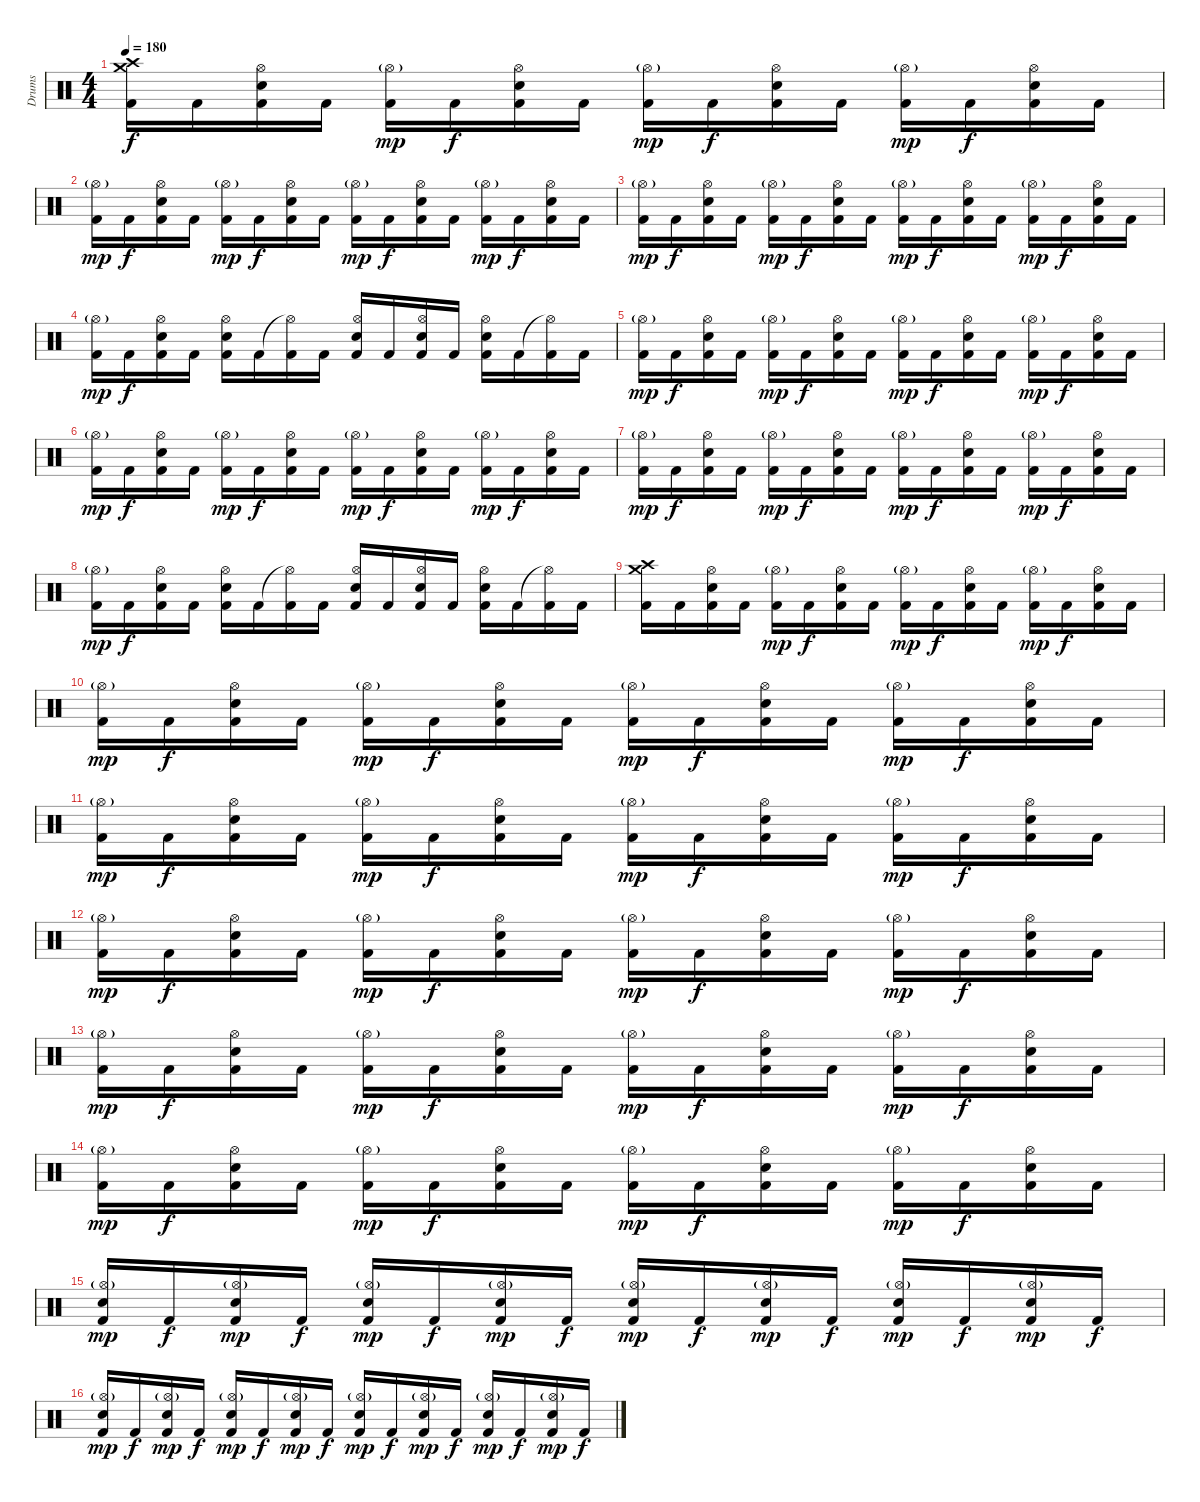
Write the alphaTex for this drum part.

\track ("Drums" "Drums") {instrument percussion}
\staff {score}
\articulation defaults
\ts (4 4)
\tempo 180
\clef neutral
\ks c
("Crash medium (hit)" "Crash high (hit)" "Kick (hit) 2").16{dy f} "Kick (hit) 2".16 ("Hi-Hat (open)" "Electric Snare (hit)" "Kick (hit) 2").16 "Kick (hit) 2".16 ("Hi-Hat (open)"{g} "Kick (hit) 2").16{dy mp} "Kick (hit) 2".16{dy f} ("Hi-Hat (open)" "Electric Snare (hit)" "Kick (hit) 2").16 "Kick (hit) 2".16 ("Hi-Hat (open)"{g} "Kick (hit) 2").16{dy mp} "Kick (hit) 2".16{dy f} ("Hi-Hat (open)" "Electric Snare (hit)" "Kick (hit) 2").16 "Kick (hit) 2".16 ("Hi-Hat (open)"{g} "Kick (hit) 2").16{dy mp} "Kick (hit) 2".16{dy f} ("Hi-Hat (open)" "Electric Snare (hit)" "Kick (hit) 2").16 "Kick (hit) 2".16 |
("Hi-Hat (open)"{g} "Kick (hit) 2").16{dy mp} "Kick (hit) 2".16{dy f} ("Hi-Hat (open)" "Electric Snare (hit)" "Kick (hit) 2").16 "Kick (hit) 2".16 ("Hi-Hat (open)"{g} "Kick (hit) 2").16{dy mp} "Kick (hit) 2".16{dy f} ("Hi-Hat (open)" "Electric Snare (hit)" "Kick (hit) 2").16 "Kick (hit) 2".16 ("Hi-Hat (open)"{g} "Kick (hit) 2").16{dy mp} "Kick (hit) 2".16{dy f} ("Hi-Hat (open)" "Electric Snare (hit)" "Kick (hit) 2").16 "Kick (hit) 2".16 ("Hi-Hat (open)"{g} "Kick (hit) 2").16{dy mp} "Kick (hit) 2".16{dy f} ("Hi-Hat (open)" "Electric Snare (hit)" "Kick (hit) 2").16 "Kick (hit) 2".16 |
("Hi-Hat (open)"{g} "Kick (hit) 2").16{dy mp} "Kick (hit) 2".16{dy f} ("Hi-Hat (open)" "Electric Snare (hit)" "Kick (hit) 2").16 "Kick (hit) 2".16 ("Hi-Hat (open)"{g} "Kick (hit) 2").16{dy mp} "Kick (hit) 2".16{dy f} ("Hi-Hat (open)" "Electric Snare (hit)" "Kick (hit) 2").16 "Kick (hit) 2".16 ("Hi-Hat (open)"{g} "Kick (hit) 2").16{dy mp} "Kick (hit) 2".16{dy f} ("Hi-Hat (open)" "Electric Snare (hit)" "Kick (hit) 2").16 "Kick (hit) 2".16 ("Hi-Hat (open)"{g} "Kick (hit) 2").16{dy mp} "Kick (hit) 2".16{dy f} ("Hi-Hat (open)" "Electric Snare (hit)" "Kick (hit) 2").16 "Kick (hit) 2".16 |
("Hi-Hat (open)"{g} "Kick (hit) 2").16{dy mp} "Kick (hit) 2".16{dy f} ("Hi-Hat (open)" "Electric Snare (hit)" "Kick (hit) 2").16 "Kick (hit) 2".16 ("Hi-Hat (open)" "Electric Snare (hit)" "Kick (hit) 2").16 "Kick (hit) 2".16 ("Hi-Hat (open)"{t} "Kick (hit) 2").16 "Kick (hit) 2".16 ("Hi-Hat (open)" "Electric Snare (hit)" "Kick (hit) 2").16 "Kick (hit) 2".16 ("Hi-Hat (open)" "Electric Snare (hit)" "Kick (hit) 2").16 "Kick (hit) 2".16 ("Hi-Hat (open)" "Electric Snare (hit)" "Kick (hit) 2").16 "Kick (hit) 2".16 ("Hi-Hat (open)"{t} "Kick (hit) 2").16 "Kick (hit) 2".16 |
("Hi-Hat (open)"{g} "Kick (hit) 2").16{dy mp} "Kick (hit) 2".16{dy f} ("Hi-Hat (open)" "Electric Snare (hit)" "Kick (hit) 2").16 "Kick (hit) 2".16 ("Hi-Hat (open)"{g} "Kick (hit) 2").16{dy mp} "Kick (hit) 2".16{dy f} ("Hi-Hat (open)" "Electric Snare (hit)" "Kick (hit) 2").16 "Kick (hit) 2".16 ("Hi-Hat (open)"{g} "Kick (hit) 2").16{dy mp} "Kick (hit) 2".16{dy f} ("Hi-Hat (open)" "Electric Snare (hit)" "Kick (hit) 2").16 "Kick (hit) 2".16 ("Hi-Hat (open)"{g} "Kick (hit) 2").16{dy mp} "Kick (hit) 2".16{dy f} ("Hi-Hat (open)" "Electric Snare (hit)" "Kick (hit) 2").16 "Kick (hit) 2".16 |
("Hi-Hat (open)"{g} "Kick (hit) 2").16{dy mp} "Kick (hit) 2".16{dy f} ("Hi-Hat (open)" "Electric Snare (hit)" "Kick (hit) 2").16 "Kick (hit) 2".16 ("Hi-Hat (open)"{g} "Kick (hit) 2").16{dy mp} "Kick (hit) 2".16{dy f} ("Hi-Hat (open)" "Electric Snare (hit)" "Kick (hit) 2").16 "Kick (hit) 2".16 ("Hi-Hat (open)"{g} "Kick (hit) 2").16{dy mp} "Kick (hit) 2".16{dy f} ("Hi-Hat (open)" "Electric Snare (hit)" "Kick (hit) 2").16 "Kick (hit) 2".16 ("Hi-Hat (open)"{g} "Kick (hit) 2").16{dy mp} "Kick (hit) 2".16{dy f} ("Hi-Hat (open)" "Electric Snare (hit)" "Kick (hit) 2").16 "Kick (hit) 2".16 |
("Hi-Hat (open)"{g} "Kick (hit) 2").16{dy mp} "Kick (hit) 2".16{dy f} ("Hi-Hat (open)" "Electric Snare (hit)" "Kick (hit) 2").16 "Kick (hit) 2".16 ("Hi-Hat (open)"{g} "Kick (hit) 2").16{dy mp} "Kick (hit) 2".16{dy f} ("Hi-Hat (open)" "Electric Snare (hit)" "Kick (hit) 2").16 "Kick (hit) 2".16 ("Hi-Hat (open)"{g} "Kick (hit) 2").16{dy mp} "Kick (hit) 2".16{dy f} ("Hi-Hat (open)" "Electric Snare (hit)" "Kick (hit) 2").16 "Kick (hit) 2".16 ("Hi-Hat (open)"{g} "Kick (hit) 2").16{dy mp} "Kick (hit) 2".16{dy f} ("Hi-Hat (open)" "Electric Snare (hit)" "Kick (hit) 2").16 "Kick (hit) 2".16 |
("Hi-Hat (open)"{g} "Kick (hit) 2").16{dy mp} "Kick (hit) 2".16{dy f} ("Hi-Hat (open)" "Electric Snare (hit)" "Kick (hit) 2").16 "Kick (hit) 2".16 ("Hi-Hat (open)" "Electric Snare (hit)" "Kick (hit) 2").16 "Kick (hit) 2".16 ("Hi-Hat (open)"{t} "Kick (hit) 2").16 "Kick (hit) 2".16 ("Hi-Hat (open)" "Electric Snare (hit)" "Kick (hit) 2").16 "Kick (hit) 2".16 ("Hi-Hat (open)" "Electric Snare (hit)" "Kick (hit) 2").16 "Kick (hit) 2".16 ("Hi-Hat (open)" "Electric Snare (hit)" "Kick (hit) 2").16 "Kick (hit) 2".16 ("Hi-Hat (open)"{t} "Kick (hit) 2").16 "Kick (hit) 2".16 |
("Crash medium (hit)" "Crash high (hit)" "Kick (hit) 2").16 "Kick (hit) 2".16 ("Hi-Hat (open)" "Electric Snare (hit)" "Kick (hit) 2").16 "Kick (hit) 2".16 ("Hi-Hat (open)"{g} "Kick (hit) 2").16{dy mp} "Kick (hit) 2".16{dy f} ("Hi-Hat (open)" "Electric Snare (hit)" "Kick (hit) 2").16 "Kick (hit) 2".16 ("Hi-Hat (open)"{g} "Kick (hit) 2").16{dy mp} "Kick (hit) 2".16{dy f} ("Hi-Hat (open)" "Electric Snare (hit)" "Kick (hit) 2").16 "Kick (hit) 2".16 ("Hi-Hat (open)"{g} "Kick (hit) 2").16{dy mp} "Kick (hit) 2".16{dy f} ("Hi-Hat (open)" "Electric Snare (hit)" "Kick (hit) 2").16 "Kick (hit) 2".16 |
("Hi-Hat (open)"{g} "Kick (hit) 2").16{dy mp} "Kick (hit) 2".16{dy f} ("Hi-Hat (open)" "Electric Snare (hit)" "Kick (hit) 2").16 "Kick (hit) 2".16 ("Hi-Hat (open)"{g} "Kick (hit) 2").16{dy mp} "Kick (hit) 2".16{dy f} ("Hi-Hat (open)" "Electric Snare (hit)" "Kick (hit) 2").16 "Kick (hit) 2".16 ("Hi-Hat (open)"{g} "Kick (hit) 2").16{dy mp} "Kick (hit) 2".16{dy f} ("Hi-Hat (open)" "Electric Snare (hit)" "Kick (hit) 2").16 "Kick (hit) 2".16 ("Hi-Hat (open)"{g} "Kick (hit) 2").16{dy mp} "Kick (hit) 2".16{dy f} ("Hi-Hat (open)" "Electric Snare (hit)" "Kick (hit) 2").16 "Kick (hit) 2".16 |
("Hi-Hat (open)"{g} "Kick (hit) 2").16{dy mp} "Kick (hit) 2".16{dy f} ("Hi-Hat (open)" "Electric Snare (hit)" "Kick (hit) 2").16 "Kick (hit) 2".16 ("Hi-Hat (open)"{g} "Kick (hit) 2").16{dy mp} "Kick (hit) 2".16{dy f} ("Hi-Hat (open)" "Electric Snare (hit)" "Kick (hit) 2").16 "Kick (hit) 2".16 ("Hi-Hat (open)"{g} "Kick (hit) 2").16{dy mp} "Kick (hit) 2".16{dy f} ("Hi-Hat (open)" "Electric Snare (hit)" "Kick (hit) 2").16 "Kick (hit) 2".16 ("Hi-Hat (open)"{g} "Kick (hit) 2").16{dy mp} "Kick (hit) 2".16{dy f} ("Hi-Hat (open)" "Electric Snare (hit)" "Kick (hit) 2").16 "Kick (hit) 2".16 |
("Hi-Hat (open)"{g} "Kick (hit) 2").16{dy mp} "Kick (hit) 2".16{dy f} ("Hi-Hat (open)" "Electric Snare (hit)" "Kick (hit) 2").16 "Kick (hit) 2".16 ("Hi-Hat (open)"{g} "Kick (hit) 2").16{dy mp} "Kick (hit) 2".16{dy f} ("Hi-Hat (open)" "Electric Snare (hit)" "Kick (hit) 2").16 "Kick (hit) 2".16 ("Hi-Hat (open)"{g} "Kick (hit) 2").16{dy mp} "Kick (hit) 2".16{dy f} ("Hi-Hat (open)" "Electric Snare (hit)" "Kick (hit) 2").16 "Kick (hit) 2".16 ("Hi-Hat (open)"{g} "Kick (hit) 2").16{dy mp} "Kick (hit) 2".16{dy f} ("Hi-Hat (open)" "Electric Snare (hit)" "Kick (hit) 2").16 "Kick (hit) 2".16 |
("Hi-Hat (open)"{g} "Kick (hit) 2").16{dy mp} "Kick (hit) 2".16{dy f} ("Hi-Hat (open)" "Electric Snare (hit)" "Kick (hit) 2").16 "Kick (hit) 2".16 ("Hi-Hat (open)"{g} "Kick (hit) 2").16{dy mp} "Kick (hit) 2".16{dy f} ("Hi-Hat (open)" "Electric Snare (hit)" "Kick (hit) 2").16 "Kick (hit) 2".16 ("Hi-Hat (open)"{g} "Kick (hit) 2").16{dy mp} "Kick (hit) 2".16{dy f} ("Hi-Hat (open)" "Electric Snare (hit)" "Kick (hit) 2").16 "Kick (hit) 2".16 ("Hi-Hat (open)"{g} "Kick (hit) 2").16{dy mp} "Kick (hit) 2".16{dy f} ("Hi-Hat (open)" "Electric Snare (hit)" "Kick (hit) 2").16 "Kick (hit) 2".16 |
("Hi-Hat (open)"{g} "Kick (hit) 2").16{dy mp} "Kick (hit) 2".16{dy f} ("Hi-Hat (open)" "Electric Snare (hit)" "Kick (hit) 2").16 "Kick (hit) 2".16 ("Hi-Hat (open)"{g} "Kick (hit) 2").16{dy mp} "Kick (hit) 2".16{dy f} ("Hi-Hat (open)" "Electric Snare (hit)" "Kick (hit) 2").16 "Kick (hit) 2".16 ("Hi-Hat (open)"{g} "Kick (hit) 2").16{dy mp} "Kick (hit) 2".16{dy f} ("Hi-Hat (open)" "Electric Snare (hit)" "Kick (hit) 2").16 "Kick (hit) 2".16 ("Hi-Hat (open)"{g} "Kick (hit) 2").16{dy mp} "Kick (hit) 2".16{dy f} ("Hi-Hat (open)" "Electric Snare (hit)" "Kick (hit) 2").16 "Kick (hit) 2".16 |
("Hi-Hat (open)"{g} "Electric Snare (hit)" "Kick (hit) 2").16{dy mp} "Kick (hit) 2".16{dy f} ("Hi-Hat (open)"{g} "Electric Snare (hit)" "Kick (hit) 2").16{dy mp} "Kick (hit) 2".16{dy f} ("Hi-Hat (open)"{g} "Electric Snare (hit)" "Kick (hit) 2").16{dy mp} "Kick (hit) 2".16{dy f} ("Hi-Hat (open)"{g} "Electric Snare (hit)" "Kick (hit) 2").16{dy mp} "Kick (hit) 2".16{dy f} ("Hi-Hat (open)"{g} "Electric Snare (hit)" "Kick (hit) 2").16{dy mp} "Kick (hit) 2".16{dy f} ("Hi-Hat (open)"{g} "Electric Snare (hit)" "Kick (hit) 2").16{dy mp} "Kick (hit) 2".16{dy f} ("Hi-Hat (open)"{g} "Electric Snare (hit)" "Kick (hit) 2").16{dy mp} "Kick (hit) 2".16{dy f} ("Hi-Hat (open)"{g} "Electric Snare (hit)" "Kick (hit) 2").16{dy mp} "Kick (hit) 2".16{dy f} |
("Hi-Hat (open)"{g} "Electric Snare (hit)" "Kick (hit) 2").16{dy mp} "Kick (hit) 2".16{dy f} ("Hi-Hat (open)"{g} "Electric Snare (hit)" "Kick (hit) 2").16{dy mp} "Kick (hit) 2".16{dy f} ("Hi-Hat (open)"{g} "Electric Snare (hit)" "Kick (hit) 2").16{dy mp} "Kick (hit) 2".16{dy f} ("Hi-Hat (open)"{g} "Electric Snare (hit)" "Kick (hit) 2").16{dy mp} "Kick (hit) 2".16{dy f} ("Hi-Hat (open)"{g} "Electric Snare (hit)" "Kick (hit) 2").16{dy mp} "Kick (hit) 2".16{dy f} ("Hi-Hat (open)"{g} "Electric Snare (hit)" "Kick (hit) 2").16{dy mp} "Kick (hit) 2".16{dy f} ("Hi-Hat (open)"{g} "Electric Snare (hit)" "Kick (hit) 2").16{dy mp} "Kick (hit) 2".16{dy f} ("Hi-Hat (open)"{g} "Electric Snare (hit)" "Kick (hit) 2").16{dy mp} "Kick (hit) 2".16{dy f}
